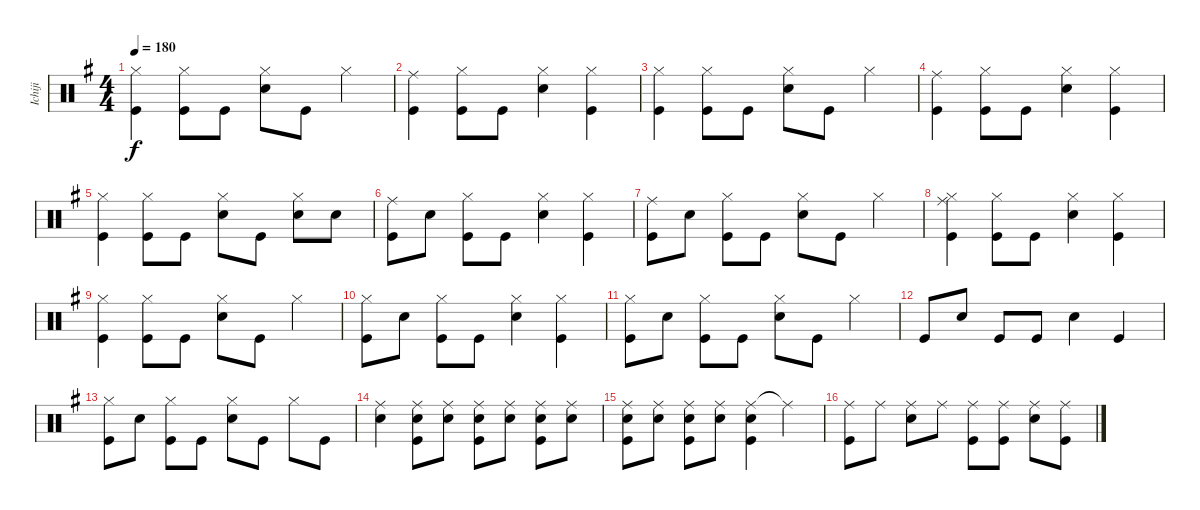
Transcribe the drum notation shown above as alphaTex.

\track ("Ichiji" "Ichiji") {instrument percussion}
\staff {score}
\articulation defaults
\ts (4 4)
\tempo 180
\clef neutral
\ks g
("Hi-Hat (closed)" "Kick (hit)").4{dy f} ("Hi-Hat (closed)" "Kick (hit)").8 "Kick (hit)".8 ("Hi-Hat (closed)" "Snare (hit) 2").8 "Kick (hit)".8 "Hi-Hat (closed)".4 |
("Ride (middle)" "Kick (hit)").4 ("Hi-Hat (closed)" "Kick (hit)").8 "Kick (hit)".8 ("Hi-Hat (closed)" "Snare (hit) 2").4 ("Hi-Hat (closed)" "Kick (hit)").4 |
("Hi-Hat (closed)" "Kick (hit)").4 ("Hi-Hat (closed)" "Kick (hit)").8 "Kick (hit)".8 ("Hi-Hat (closed)" "Snare (hit) 2").8 "Kick (hit)".8 "Hi-Hat (closed)".4 |
("Ride (middle)" "Kick (hit)").4 ("Hi-Hat (closed)" "Kick (hit)").8 "Kick (hit)".8 ("Hi-Hat (closed)" "Snare (hit) 2").4 ("Hi-Hat (closed)" "Kick (hit)").4 |
("Hi-Hat (closed)" "Kick (hit)").4 ("Hi-Hat (closed)" "Kick (hit)").8 "Kick (hit)".8 ("Hi-Hat (closed)" "Snare (hit) 2").8 "Kick (hit)".8 ("Hi-Hat (closed)" "Snare (hit) 2").8 "Snare (hit) 2".8 |
("Ride (middle)" "Kick (hit)").8 "Snare (hit) 2".8 ("Hi-Hat (closed)" "Kick (hit)").8 "Kick (hit)".8 ("Hi-Hat (closed)" "Snare (hit) 2").4 ("Kick (hit)" "Hi-Hat (closed)").4 |
("Ride (middle)" "Kick (hit)").8 "Snare (hit) 2".8 ("Hi-Hat (closed)" "Kick (hit)").8 "Kick (hit)".8 ("Hi-Hat (closed)" "Snare (hit) 2").8 "Kick (hit)".8 "Hi-Hat (closed)".4 |
("Ride (middle)" "Hi-Hat (closed)" "Kick (hit)").4 ("Hi-Hat (closed)" "Kick (hit)").8 "Kick (hit)".8 ("Hi-Hat (closed)" "Snare (hit) 2").4 ("Hi-Hat (closed)" "Kick (hit)").4 |
("Hi-Hat (closed)" "Kick (hit)").4 ("Hi-Hat (closed)" "Kick (hit)").8 "Kick (hit)".8 ("Hi-Hat (closed)" "Snare (hit) 2").8 "Kick (hit)".8 "Hi-Hat (closed)".4 |
("Hi-Hat (closed)" "Kick (hit)").8 "Snare (hit) 2".8 ("Hi-Hat (closed)" "Kick (hit)").8 "Kick (hit)".8 ("Hi-Hat (closed)" "Snare (hit) 2").4 ("Hi-Hat (closed)" "Kick (hit)").4 |
("Hi-Hat (closed)" "Kick (hit)").8 "Snare (hit) 2".8 ("Hi-Hat (closed)" "Kick (hit)").8 "Kick (hit)".8 ("Hi-Hat (closed)" "Snare (hit) 2").8 "Kick (hit)".8 "Hi-Hat (closed)".4 |
"Kick (hit)".8 "Snare (hit) 2".8 "Kick (hit)".8 "Kick (hit)".8 "Snare (hit) 2".4 "Kick (hit)".4 |
("Hi-Hat (closed)" "Kick (hit)").8 "Snare (hit) 2".8 ("Hi-Hat (closed)" "Kick (hit)").8 "Kick (hit)".8 ("Hi-Hat (closed)" "Snare (hit) 2").8 "Kick (hit)".8 "Hi-Hat (closed)".8 "Kick (hit)".8 |
("Ride (middle)" "Snare (hit) 2").4 ("Ride (middle)" "Snare (hit) 2" "Kick (hit)").8 ("Ride (middle)" "Snare (hit) 2").8 ("Ride (middle)" "Snare (hit) 2" "Kick (hit)").8 ("Ride (middle)" "Snare (hit) 2").8 ("Ride (middle)" "Snare (hit) 2" "Kick (hit)").8 ("Ride (middle)" "Snare (hit) 2").8 |
("Ride (middle)" "Snare (hit) 2" "Kick (hit)").8 ("Ride (middle)" "Snare (hit) 2").8 ("Ride (middle)" "Snare (hit) 2" "Kick (hit)").8 ("Ride (middle)" "Snare (hit) 2").8 ("Ride (middle)" "Snare (hit) 2" "Kick (hit)").4 "Ride (middle)"{t}.4 |
("Ride (middle)" "Kick (hit)").8 "Ride (middle)".8 ("Ride (middle)" "Snare (hit) 2").8 "Ride (middle)".8 ("Ride (middle)" "Kick (hit)").8 ("Ride (middle)" "Kick (hit)").8 ("Ride (middle)" "Snare (hit) 2").8 ("Ride (middle)" "Kick (hit)").8
